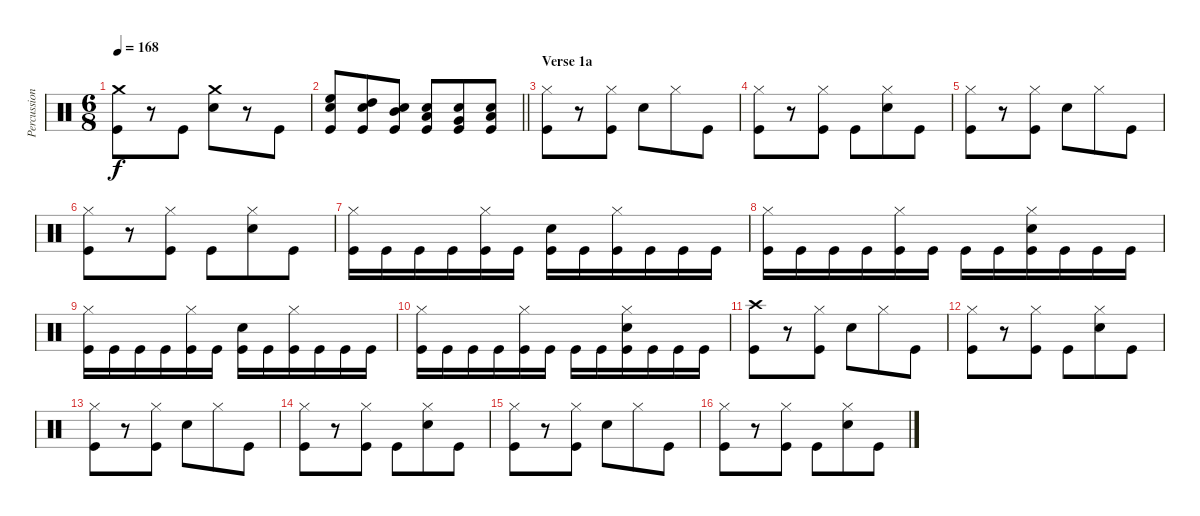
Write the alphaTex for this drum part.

\track ("Percussion" "Percussion") {instrument percussion}
\staff {score}
\articulation defaults
\ts (6 8)
\tempo 168
\clef neutral
\ks c
("Crash medium (hit)" "Kick (hit)").8{dy f} r.8 "Kick (hit)".8 ("Crash medium (hit)" "Snare (hit) 2").8 r.8 "Kick (hit)".8 |
\barLineRight lightlight
("High Floor Tom (hit)" "Snare (hit) 2" "Kick (hit)").8 ("High Tom (hit)" "Snare (hit) 2" "Kick (hit)").8 ("Mid Tom (hit)" "Snare (hit) 2" "Kick (hit)").8 ("Low Tom (hit)" "Snare (hit) 2" "Kick (hit)").8 ("Very Low Tom (hit)" "Snare (hit) 2" "Kick (hit)").8 ("Low Floor Tom (hit)" "Snare (hit) 2" "Kick (hit)").8 |
\section ("" "Verse 1a")
("Hi-Hat (closed)" "Kick (hit)").8 r.8 ("Hi-Hat (closed)" "Kick (hit)").8 "Snare (hit) 2".8 "Hi-Hat (closed)".8 "Kick (hit)".8 |
("Hi-Hat (closed)" "Kick (hit)").8 r.8 ("Hi-Hat (closed)" "Kick (hit)").8 "Kick (hit)".8 ("Hi-Hat (closed)" "Snare (hit) 2").8 "Kick (hit)".8 |
("Hi-Hat (closed)" "Kick (hit)").8 r.8 ("Hi-Hat (closed)" "Kick (hit)").8 "Snare (hit) 2".8 "Hi-Hat (closed)".8 "Kick (hit)".8 |
("Hi-Hat (closed)" "Kick (hit)").8 r.8 ("Hi-Hat (closed)" "Kick (hit)").8 "Kick (hit)".8 ("Hi-Hat (closed)" "Snare (hit) 2").8 "Kick (hit)".8 |
("Hi-Hat (closed)" "Kick (hit)").16 "Kick (hit)".16 "Kick (hit)".16 "Kick (hit)".16 ("Hi-Hat (closed)" "Kick (hit)").16 "Kick (hit)".16 ("Snare (hit) 2" "Kick (hit)").16 "Kick (hit)".16 ("Hi-Hat (closed)" "Kick (hit)").16 "Kick (hit)".16 "Kick (hit)".16 "Kick (hit)".16 |
("Hi-Hat (closed)" "Kick (hit)").16 "Kick (hit)".16 "Kick (hit)".16 "Kick (hit)".16 ("Hi-Hat (closed)" "Kick (hit)").16 "Kick (hit)".16 "Kick (hit)".16 "Kick (hit)".16 ("Hi-Hat (closed)" "Snare (hit) 2" "Kick (hit)").16 "Kick (hit)".16 "Kick (hit)".16 "Kick (hit)".16 |
("Hi-Hat (closed)" "Kick (hit)").16 "Kick (hit)".16 "Kick (hit)".16 "Kick (hit)".16 ("Hi-Hat (closed)" "Kick (hit)").16 "Kick (hit)".16 ("Snare (hit) 2" "Kick (hit)").16 "Kick (hit)".16 ("Hi-Hat (closed)" "Kick (hit)").16 "Kick (hit)".16 "Kick (hit)".16 "Kick (hit)".16 |
("Hi-Hat (closed)" "Kick (hit)").16 "Kick (hit)".16 "Kick (hit)".16 "Kick (hit)".16 ("Hi-Hat (closed)" "Kick (hit)").16 "Kick (hit)".16 "Kick (hit)".16 "Kick (hit)".16 ("Hi-Hat (closed)" "Snare (hit) 2" "Kick (hit)").16 "Kick (hit)".16 "Kick (hit)".16 "Kick (hit)".16 |
("Crash high (hit)" "Kick (hit)").8 r.8 ("Hi-Hat (closed)" "Kick (hit)").8 "Snare (hit) 2".8 "Hi-Hat (closed)".8 "Kick (hit)".8 |
("Hi-Hat (closed)" "Kick (hit)").8 r.8 ("Hi-Hat (closed)" "Kick (hit)").8 "Kick (hit)".8 ("Hi-Hat (closed)" "Snare (hit) 2").8 "Kick (hit)".8 |
("Hi-Hat (closed)" "Kick (hit)").8 r.8 ("Hi-Hat (closed)" "Kick (hit)").8 "Snare (hit) 2".8 "Hi-Hat (closed)".8 "Kick (hit)".8 |
("Hi-Hat (closed)" "Kick (hit)").8 r.8 ("Hi-Hat (closed)" "Kick (hit)").8 "Kick (hit)".8 ("Hi-Hat (closed)" "Snare (hit) 2").8 "Kick (hit)".8 |
("Hi-Hat (closed)" "Kick (hit)").8 r.8 ("Hi-Hat (closed)" "Kick (hit)").8 "Snare (hit) 2".8 "Hi-Hat (closed)".8 "Kick (hit)".8 |
("Hi-Hat (closed)" "Kick (hit)").8 r.8 ("Hi-Hat (closed)" "Kick (hit)").8 "Kick (hit)".8 ("Hi-Hat (closed)" "Snare (hit) 2").8 "Kick (hit)".8
